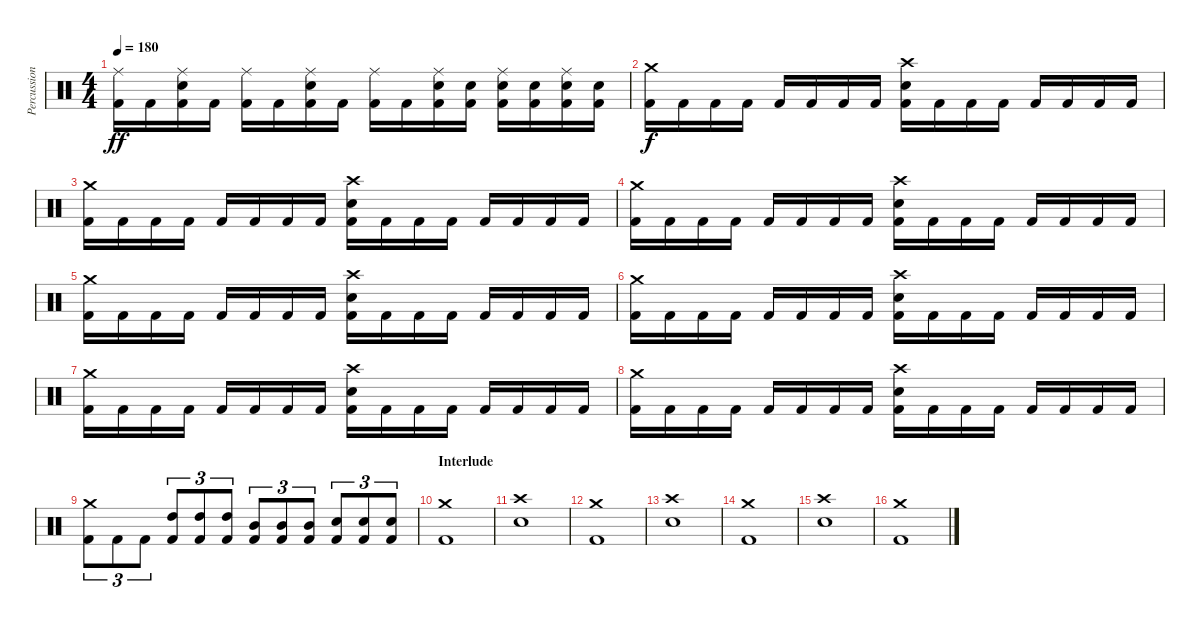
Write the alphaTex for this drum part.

\track ("Percussions" "Percussion") {instrument percussion}
\staff {score}
\articulation defaults
\ts (4 4)
\tempo 180
\clef neutral
\ks c
("Ride (middle)" "Kick (hit) 2").16{dy ff} "Kick (hit) 2".16 ("Ride (middle)" "Electric Snare (hit)" "Kick (hit) 2").16 "Kick (hit) 2".16 ("Ride (middle)" "Kick (hit) 2").16 "Kick (hit) 2".16 ("Ride (middle)" "Electric Snare (hit)" "Kick (hit) 2").16 "Kick (hit) 2".16 ("Ride (middle)" "Kick (hit) 2").16 "Kick (hit) 2".16 ("Ride (middle)" "Electric Snare (hit)" "Kick (hit) 2").16 ("Electric Snare (hit)" "Kick (hit) 2").16 ("Ride (middle)" "Electric Snare (hit)" "Kick (hit) 2").16 ("Electric Snare (hit)" "Kick (hit) 2").16 ("Ride (middle)" "Electric Snare (hit)" "Kick (hit) 2").16 ("Electric Snare (hit)" "Kick (hit) 2").16 |
("Crash medium (hit)" "Kick (hit) 2").16{dy f} "Kick (hit) 2".16 "Kick (hit) 2".16 "Kick (hit) 2".16 "Kick (hit) 2".16 "Kick (hit) 2".16 "Kick (hit) 2".16 "Kick (hit) 2".16 ("Crash high (hit)" "Electric Snare (hit)" "Kick (hit) 2").16 "Kick (hit) 2".16 "Kick (hit) 2".16 "Kick (hit) 2".16 "Kick (hit) 2".16 "Kick (hit) 2".16 "Kick (hit) 2".16 "Kick (hit) 2".16 |
("Crash medium (hit)" "Kick (hit) 2").16 "Kick (hit) 2".16 "Kick (hit) 2".16 "Kick (hit) 2".16 "Kick (hit) 2".16 "Kick (hit) 2".16 "Kick (hit) 2".16 "Kick (hit) 2".16 ("Crash high (hit)" "Electric Snare (hit)" "Kick (hit) 2").16 "Kick (hit) 2".16 "Kick (hit) 2".16 "Kick (hit) 2".16 "Kick (hit) 2".16 "Kick (hit) 2".16 "Kick (hit) 2".16 "Kick (hit) 2".16 |
("Crash medium (hit)" "Kick (hit) 2").16 "Kick (hit) 2".16 "Kick (hit) 2".16 "Kick (hit) 2".16 "Kick (hit) 2".16 "Kick (hit) 2".16 "Kick (hit) 2".16 "Kick (hit) 2".16 ("Crash high (hit)" "Electric Snare (hit)" "Kick (hit) 2").16 "Kick (hit) 2".16 "Kick (hit) 2".16 "Kick (hit) 2".16 "Kick (hit) 2".16 "Kick (hit) 2".16 "Kick (hit) 2".16 "Kick (hit) 2".16 |
("Crash medium (hit)" "Kick (hit) 2").16 "Kick (hit) 2".16 "Kick (hit) 2".16 "Kick (hit) 2".16 "Kick (hit) 2".16 "Kick (hit) 2".16 "Kick (hit) 2".16 "Kick (hit) 2".16 ("Crash high (hit)" "Electric Snare (hit)" "Kick (hit) 2").16 "Kick (hit) 2".16 "Kick (hit) 2".16 "Kick (hit) 2".16 "Kick (hit) 2".16 "Kick (hit) 2".16 "Kick (hit) 2".16 "Kick (hit) 2".16 |
("Crash medium (hit)" "Kick (hit) 2").16 "Kick (hit) 2".16 "Kick (hit) 2".16 "Kick (hit) 2".16 "Kick (hit) 2".16 "Kick (hit) 2".16 "Kick (hit) 2".16 "Kick (hit) 2".16 ("Crash high (hit)" "Electric Snare (hit)" "Kick (hit) 2").16 "Kick (hit) 2".16 "Kick (hit) 2".16 "Kick (hit) 2".16 "Kick (hit) 2".16 "Kick (hit) 2".16 "Kick (hit) 2".16 "Kick (hit) 2".16 |
("Crash medium (hit)" "Kick (hit) 2").16 "Kick (hit) 2".16 "Kick (hit) 2".16 "Kick (hit) 2".16 "Kick (hit) 2".16 "Kick (hit) 2".16 "Kick (hit) 2".16 "Kick (hit) 2".16 ("Crash high (hit)" "Electric Snare (hit)" "Kick (hit) 2").16 "Kick (hit) 2".16 "Kick (hit) 2".16 "Kick (hit) 2".16 "Kick (hit) 2".16 "Kick (hit) 2".16 "Kick (hit) 2".16 "Kick (hit) 2".16 |
("Crash medium (hit)" "Kick (hit) 2").16 "Kick (hit) 2".16 "Kick (hit) 2".16 "Kick (hit) 2".16 "Kick (hit) 2".16 "Kick (hit) 2".16 "Kick (hit) 2".16 "Kick (hit) 2".16 ("Crash high (hit)" "Electric Snare (hit)" "Kick (hit) 2").16 "Kick (hit) 2".16 "Kick (hit) 2".16 "Kick (hit) 2".16 "Kick (hit) 2".16 "Kick (hit) 2".16 "Kick (hit) 2".16 "Kick (hit) 2".16 |
("Crash medium (hit)" "Kick (hit) 2").8{tu (3 2)} "Kick (hit) 2".8{tu (3 2)} "Kick (hit) 2".8{tu (3 2)} ("High Tom (hit)" "Kick (hit) 2").8{tu (3 2)} ("High Tom (hit)" "Kick (hit) 2").8{tu (3 2)} ("High Tom (hit)" "Kick (hit) 2").8{tu (3 2)} ("Mid Tom (hit)" "Kick (hit) 2").8{tu (3 2)} ("Mid Tom (hit)" "Kick (hit) 2").8{tu (3 2)} ("Mid Tom (hit)" "Kick (hit) 2").8{tu (3 2)} ("Electric Snare (hit)" "Kick (hit) 2").8{tu (3 2)} ("Electric Snare (hit)" "Kick (hit) 2").8{tu (3 2)} ("Electric Snare (hit)" "Kick (hit) 2").8{tu (3 2)} |
\section ("" "Interlude")
("Crash medium (hit)" "Kick (hit) 2").1 |
("Crash high (hit)" "Electric Snare (hit)").1 |
("Crash medium (hit)" "Kick (hit) 2").1 |
("Crash high (hit)" "Electric Snare (hit)").1 |
("Crash medium (hit)" "Kick (hit) 2").1 |
("Crash high (hit)" "Electric Snare (hit)").1 |
("Crash medium (hit)" "Kick (hit) 2").1
